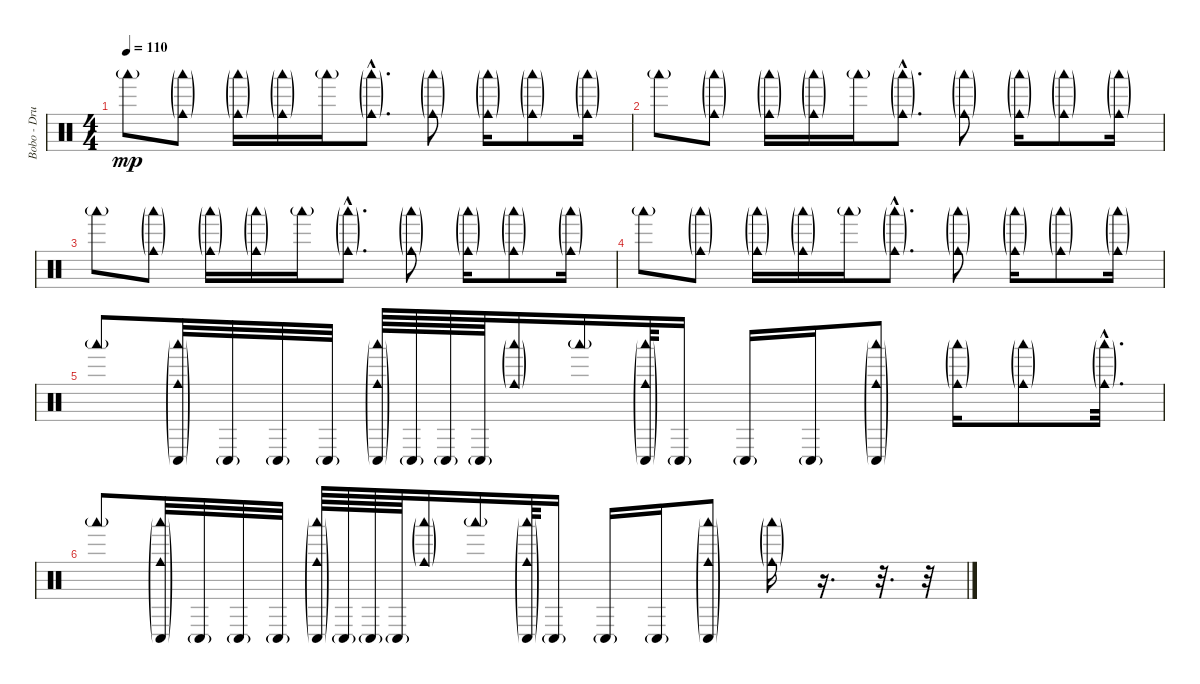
\track ("Bobo - Drums" "Bobo - Dru") {instrument percussion}
\staff {score}
\articulation defaults
\ts (4 4)
\tempo 110
\clef neutral
\ks c "Woodblock low (hit)"{g}.8{dy mp}
("Woodblock low (hit)"{g} "Cowbell medium (hit)"{g}).8 ("Woodblock low (hit)"{g} "Cowbell medium (hit)"{g}).16 ("Woodblock low (hit)"{g} "Cowbell medium (hit)"{g}).16 "Woodblock low (hit)"{g}.16 ("Woodblock low (hit)"{g hac} "Cowbell medium (hit)"{g hac}).8{d} ("Woodblock low (hit)"{g} "Cowbell medium (hit)"{g}).8 ("Woodblock low (hit)"{g} "Cowbell medium (hit)"{g}).16 ("Woodblock low (hit)"{g} "Cowbell medium (hit)"{g}).8 ("Woodblock low (hit)"{g} "Cowbell medium (hit)"{g}).16 |
"Woodblock low (hit)"{g}.8 ("Woodblock low (hit)"{g} "Cowbell medium (hit)"{g}).8 ("Woodblock low (hit)"{g} "Cowbell medium (hit)"{g}).16 ("Woodblock low (hit)"{g} "Cowbell medium (hit)"{g}).16 "Woodblock low (hit)"{g}.16 ("Woodblock low (hit)"{g hac} "Cowbell medium (hit)"{g hac}).8{d} ("Woodblock low (hit)"{g} "Cowbell medium (hit)"{g}).8 ("Woodblock low (hit)"{g} "Cowbell medium (hit)"{g}).16 ("Woodblock low (hit)"{g} "Cowbell medium (hit)"{g}).8 ("Woodblock low (hit)"{g} "Cowbell medium (hit)"{g}).16 |
"Woodblock low (hit)"{g}.8 ("Woodblock low (hit)"{g} "Cowbell medium (hit)"{g}).8 ("Woodblock low (hit)"{g} "Cowbell medium (hit)"{g}).16 ("Woodblock low (hit)"{g} "Cowbell medium (hit)"{g}).16 "Woodblock low (hit)"{g}.16 ("Woodblock low (hit)"{g hac} "Cowbell medium (hit)"{g hac}).8{d} ("Woodblock low (hit)"{g} "Cowbell medium (hit)"{g}).8 ("Woodblock low (hit)"{g} "Cowbell medium (hit)"{g}).16 ("Woodblock low (hit)"{g} "Cowbell medium (hit)"{g}).8 ("Woodblock low (hit)"{g} "Cowbell medium (hit)"{g}).16 |
"Woodblock low (hit)"{g}.8 ("Woodblock low (hit)"{g} "Cowbell medium (hit)"{g}).8 ("Woodblock low (hit)"{g} "Cowbell medium (hit)"{g}).16 ("Woodblock low (hit)"{g} "Cowbell medium (hit)"{g}).16 "Woodblock low (hit)"{g}.16 ("Woodblock low (hit)"{g hac} "Cowbell medium (hit)"{g hac}).8{d} ("Woodblock low (hit)"{g} "Cowbell medium (hit)"{g}).8 ("Woodblock low (hit)"{g} "Cowbell medium (hit)"{g}).16 ("Woodblock low (hit)"{g} "Cowbell medium (hit)"{g}).8 ("Woodblock low (hit)"{g} "Cowbell medium (hit)"{g}).16 |
"Woodblock low (hit)"{g}.8 ("Conga low (hit)"{g} "Woodblock low (hit)"{g} "Cowbell medium (hit)"{g}).32 "Conga low (hit)"{g}.32{volume 11} "Conga low (hit)"{g}.32 "Conga low (hit)"{g}.32 ("Conga low (hit)"{g} "Woodblock low (hit)"{g} "Cowbell medium (hit)"{g}).64{volume 16} "Conga low (hit)"{g}.64 "Conga low (hit)"{g}.64 "Conga low (hit)"{g}.64 ("Woodblock low (hit)"{g} "Cowbell medium (hit)"{g}).16{volume 16} "Woodblock low (hit)"{g}.16 ("Conga low (hit)"{g} "Woodblock low (hit)"{g} "Cowbell medium (hit)"{g}).64 "Conga low (hit)"{g}.16 "Conga low (hit)"{g}.16 "Conga low (hit)"{g}.16 ("Conga low (hit)"{g} "Woodblock low (hit)"{g} "Cowbell medium (hit)"{g}).8 ("Woodblock low (hit)"{g} "Cowbell medium (hit)"{g}).16 ("Woodblock low (hit)"{g} "Cowbell medium (hit)"{g}).8 ("Woodblock low (hit)"{g hac} "Cowbell medium (hit)"{g hac}).32{d} |
"Woodblock low (hit)"{g}.8 ("Conga low (hit)"{g} "Woodblock low (hit)"{g} "Cowbell medium (hit)"{g}).32 "Conga low (hit)"{g}.32{volume 11} "Conga low (hit)"{g}.32 "Conga low (hit)"{g}.32 ("Conga low (hit)"{g} "Woodblock low (hit)"{g} "Cowbell medium (hit)"{g}).64{volume 16} "Conga low (hit)"{g}.64 "Conga low (hit)"{g}.64 "Conga low (hit)"{g}.64 ("Woodblock low (hit)"{g} "Cowbell medium (hit)"{g}).16{volume 16} "Woodblock low (hit)"{g}.16 ("Conga low (hit)"{g} "Woodblock low (hit)"{g} "Cowbell medium (hit)"{g}).64 "Conga low (hit)"{g}.16 "Conga low (hit)"{g}.16 "Conga low (hit)"{g}.16 ("Conga low (hit)"{g} "Woodblock low (hit)"{g} "Cowbell medium (hit)"{g}).8 ("Woodblock low (hit)"{g} "Cowbell medium (hit)"{g}).16 r.16{d} r.32{d} r.32
